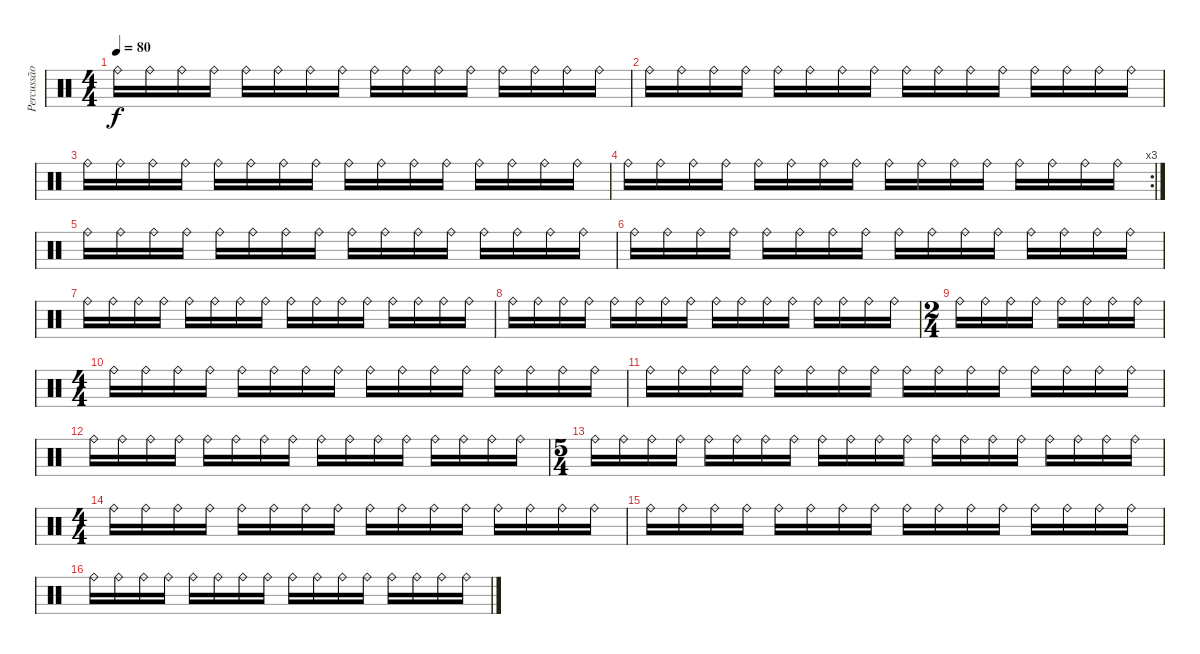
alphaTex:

\track ("Percussão" "Percussão") {instrument percussion}
\staff {score}
\articulation defaults
\ts (4 4)
\tempo 80
\clef neutral
\ks c "Ride (bell)".16{dy f} "Ride (bell)".16 "Ride (bell)".16 "Ride (bell)".16 "Ride (bell)".16 "Ride (bell)".16 "Ride (bell)".16 "Ride (bell)".16 "Ride (bell)".16 "Ride (bell)".16 "Ride (bell)".16 "Ride (bell)".16 "Ride (bell)".16 "Ride (bell)".16 "Ride (bell)".16 "Ride (bell)".16
|
"Ride (bell)".16 "Ride (bell)".16 "Ride (bell)".16 "Ride (bell)".16 "Ride (bell)".16 "Ride (bell)".16 "Ride (bell)".16 "Ride (bell)".16 "Ride (bell)".16 "Ride (bell)".16 "Ride (bell)".16 "Ride (bell)".16 "Ride (bell)".16 "Ride (bell)".16 "Ride (bell)".16 "Ride (bell)".16 |
"Ride (bell)".16 "Ride (bell)".16 "Ride (bell)".16 "Ride (bell)".16 "Ride (bell)".16 "Ride (bell)".16 "Ride (bell)".16 "Ride (bell)".16 "Ride (bell)".16 "Ride (bell)".16 "Ride (bell)".16 "Ride (bell)".16 "Ride (bell)".16 "Ride (bell)".16 "Ride (bell)".16 "Ride (bell)".16 |
\rc 3 "Ride (bell)".16 "Ride (bell)".16 "Ride (bell)".16 "Ride (bell)".16 "Ride (bell)".16 "Ride (bell)".16 "Ride (bell)".16 "Ride (bell)".16 "Ride (bell)".16 "Ride (bell)".16 "Ride (bell)".16 "Ride (bell)".16 "Ride (bell)".16 "Ride (bell)".16 "Ride (bell)".16 "Ride (bell)".16
|
"Ride (bell)".16 "Ride (bell)".16 "Ride (bell)".16 "Ride (bell)".16 "Ride (bell)".16 "Ride (bell)".16 "Ride (bell)".16 "Ride (bell)".16 "Ride (bell)".16 "Ride (bell)".16 "Ride (bell)".16 "Ride (bell)".16 "Ride (bell)".16 "Ride (bell)".16 "Ride (bell)".16 "Ride (bell)".16 |
"Ride (bell)".16 "Ride (bell)".16 "Ride (bell)".16 "Ride (bell)".16 "Ride (bell)".16 "Ride (bell)".16 "Ride (bell)".16 "Ride (bell)".16 "Ride (bell)".16 "Ride (bell)".16 "Ride (bell)".16 "Ride (bell)".16 "Ride (bell)".16 "Ride (bell)".16 "Ride (bell)".16 "Ride (bell)".16 |
"Ride (bell)".16 "Ride (bell)".16 "Ride (bell)".16 "Ride (bell)".16 "Ride (bell)".16 "Ride (bell)".16 "Ride (bell)".16 "Ride (bell)".16 "Ride (bell)".16 "Ride (bell)".16 "Ride (bell)".16 "Ride (bell)".16 "Ride (bell)".16 "Ride (bell)".16 "Ride (bell)".16 "Ride (bell)".16 |
"Ride (bell)".16 "Ride (bell)".16 "Ride (bell)".16 "Ride (bell)".16 "Ride (bell)".16 "Ride (bell)".16 "Ride (bell)".16 "Ride (bell)".16 "Ride (bell)".16 "Ride (bell)".16 "Ride (bell)".16 "Ride (bell)".16 "Ride (bell)".16 "Ride (bell)".16 "Ride (bell)".16 "Ride (bell)".16 |
\ts (2 4)
"Ride (bell)".16 "Ride (bell)".16 "Ride (bell)".16 "Ride (bell)".16 "Ride (bell)".16 "Ride (bell)".16 "Ride (bell)".16 "Ride (bell)".16 |
\ts (4 4)
"Ride (bell)".16 "Ride (bell)".16 "Ride (bell)".16 "Ride (bell)".16 "Ride (bell)".16 "Ride (bell)".16 "Ride (bell)".16 "Ride (bell)".16 "Ride (bell)".16 "Ride (bell)".16 "Ride (bell)".16 "Ride (bell)".16 "Ride (bell)".16 "Ride (bell)".16 "Ride (bell)".16 "Ride (bell)".16 |
"Ride (bell)".16 "Ride (bell)".16 "Ride (bell)".16 "Ride (bell)".16 "Ride (bell)".16 "Ride (bell)".16 "Ride (bell)".16 "Ride (bell)".16 "Ride (bell)".16 "Ride (bell)".16 "Ride (bell)".16 "Ride (bell)".16 "Ride (bell)".16 "Ride (bell)".16 "Ride (bell)".16 "Ride (bell)".16 |
"Ride (bell)".16 "Ride (bell)".16 "Ride (bell)".16 "Ride (bell)".16 "Ride (bell)".16 "Ride (bell)".16 "Ride (bell)".16 "Ride (bell)".16 "Ride (bell)".16 "Ride (bell)".16 "Ride (bell)".16 "Ride (bell)".16 "Ride (bell)".16 "Ride (bell)".16 "Ride (bell)".16 "Ride (bell)".16 |
\ts (5 4)
"Ride (bell)".16 "Ride (bell)".16 "Ride (bell)".16 "Ride (bell)".16 "Ride (bell)".16 "Ride (bell)".16 "Ride (bell)".16 "Ride (bell)".16 "Ride (bell)".16 "Ride (bell)".16 "Ride (bell)".16 "Ride (bell)".16 "Ride (bell)".16 "Ride (bell)".16 "Ride (bell)".16 "Ride (bell)".16 "Ride (bell)".16 "Ride (bell)".16 "Ride (bell)".16 "Ride (bell)".16 |
\ts (4 4)
"Ride (bell)".16 "Ride (bell)".16 "Ride (bell)".16 "Ride (bell)".16 "Ride (bell)".16 "Ride (bell)".16 "Ride (bell)".16 "Ride (bell)".16 "Ride (bell)".16 "Ride (bell)".16 "Ride (bell)".16 "Ride (bell)".16 "Ride (bell)".16 "Ride (bell)".16 "Ride (bell)".16 "Ride (bell)".16 |
"Ride (bell)".16 "Ride (bell)".16 "Ride (bell)".16 "Ride (bell)".16 "Ride (bell)".16 "Ride (bell)".16 "Ride (bell)".16 "Ride (bell)".16 "Ride (bell)".16 "Ride (bell)".16 "Ride (bell)".16 "Ride (bell)".16 "Ride (bell)".16 "Ride (bell)".16 "Ride (bell)".16 "Ride (bell)".16 |
"Ride (bell)".16 "Ride (bell)".16 "Ride (bell)".16 "Ride (bell)".16 "Ride (bell)".16 "Ride (bell)".16 "Ride (bell)".16 "Ride (bell)".16 "Ride (bell)".16 "Ride (bell)".16 "Ride (bell)".16 "Ride (bell)".16 "Ride (bell)".16 "Ride (bell)".16 "Ride (bell)".16 "Ride (bell)".16
